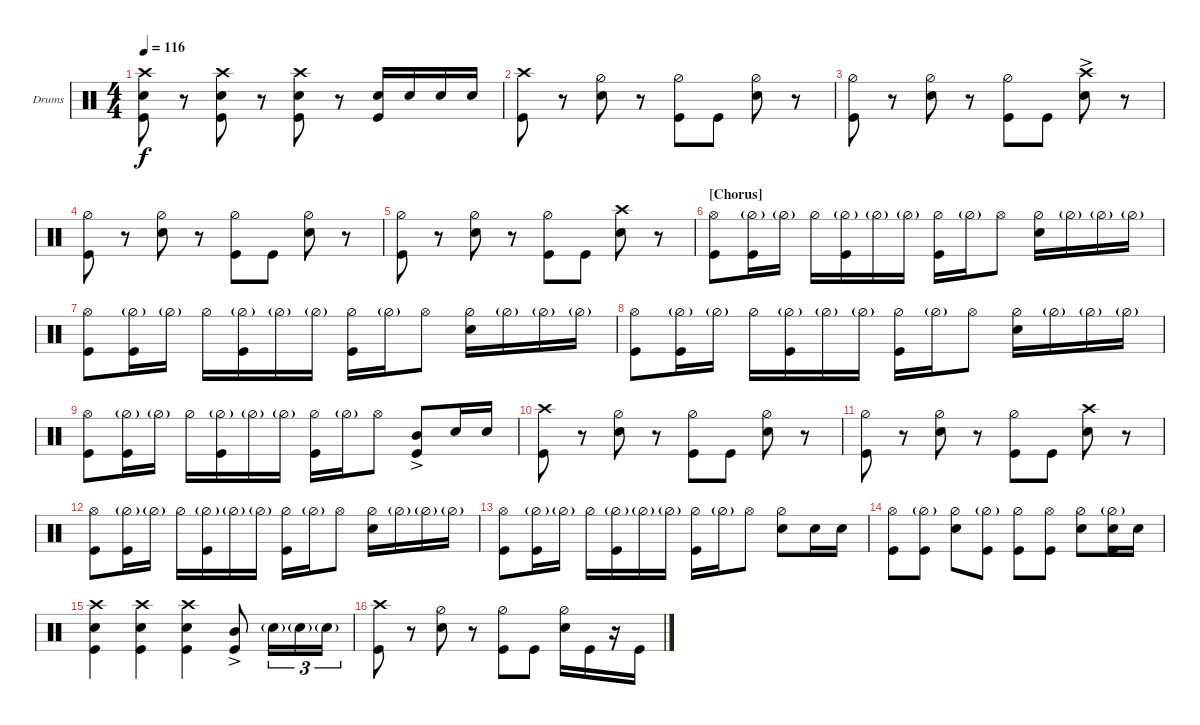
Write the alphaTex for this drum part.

\bracketExtendMode nobrackets
\firstSystemTrackNameOrientation horizontal
\otherSystemsTrackNameOrientation horizontal
\track ("Drumkit" "Drums") {instrument percussion}
\staff {score}
\articulation defaults
\ts (4 4)
\tempo 116
\clef neutral
\ks c
("Snare (hit) 2" "Kick (hit)" "Crash high (hit)").8{dy f} r.8 ("Snare (hit) 2" "Kick (hit)" "Crash high (hit)").8 r.8 ("Snare (hit) 2" "Kick (hit)" "Crash high (hit)").8 r.8 ("Kick (hit)" "Snare (hit) 2").16 "Snare (hit) 2".16 "Snare (hit) 2".16 "Snare (hit) 2".16 |
("Kick (hit)" "Crash high (hit)").8 r.8 ("Snare (hit) 2" "Hi-Hat (half)").8 r.8 ("Hi-Hat (half)" "Kick (hit)").8 "Kick (hit)".8 ("Hi-Hat (half)" "Snare (hit) 2").8 r.8 |
("Hi-Hat (half)" "Kick (hit)").8 r.8 ("Snare (hit) 2" "Hi-Hat (half)").8 r.8 ("Hi-Hat (half)" "Kick (hit)").8 "Kick (hit)".8 ("Snare (hit) 2" "Crash high (hit)"{ac}).8 r.8 |
("Hi-Hat (half)" "Kick (hit)").8 r.8 ("Snare (hit) 2" "Hi-Hat (half)").8 r.8 ("Hi-Hat (half)" "Kick (hit)").8 "Kick (hit)".8 ("Hi-Hat (half)" "Snare (hit) 2").8 r.8 |
("Hi-Hat (half)" "Kick (hit)").8 r.8 ("Snare (hit) 2" "Hi-Hat (half)").8 r.8 ("Hi-Hat (half)" "Kick (hit)").8 "Kick (hit)".8 ("Snare (hit) 2" "Crash high (hit)").8 r.8 |
\section ("" "[Chorus]")
("Hi-Hat (open)" "Kick (hit)").8 ("Hi-Hat (half)"{g} "Kick (hit)").16 "Hi-Hat (half)"{g}.16 "Hi-Hat (half)".16 ("Kick (hit)" "Hi-Hat (half)"{g}).16 "Hi-Hat (half)"{g}.16 "Hi-Hat (half)"{g}.16 ("Hi-Hat (half)" "Kick (hit)").16 "Hi-Hat (half)"{g}.16 "Hi-Hat (open)".8 ("Hi-Hat (half)" "Snare (hit) 2").16 "Hi-Hat (half)"{g}.16 "Hi-Hat (half)"{g}.16 "Hi-Hat (half)"{g}.16 |
("Hi-Hat (open)" "Kick (hit)").8 ("Hi-Hat (half)"{g} "Kick (hit)").16 "Hi-Hat (half)"{g}.16 "Hi-Hat (half)".16 ("Kick (hit)" "Hi-Hat (half)"{g}).16 "Hi-Hat (half)"{g}.16 "Hi-Hat (half)"{g}.16 ("Hi-Hat (half)" "Kick (hit)").16 "Hi-Hat (half)"{g}.16 "Hi-Hat (open)".8 ("Hi-Hat (half)" "Snare (hit) 2").16 "Hi-Hat (half)"{g}.16 "Hi-Hat (half)"{g}.16 "Hi-Hat (half)"{g}.16 |
("Hi-Hat (open)" "Kick (hit)").8 ("Hi-Hat (half)"{g} "Kick (hit)").16 "Hi-Hat (half)"{g}.16 "Hi-Hat (half)".16 ("Kick (hit)" "Hi-Hat (half)"{g}).16 "Hi-Hat (half)"{g}.16 "Hi-Hat (half)"{g}.16 ("Hi-Hat (half)" "Kick (hit)").16 "Hi-Hat (half)"{g}.16 "Hi-Hat (open)".8 ("Hi-Hat (half)" "Snare (hit) 2").16 "Hi-Hat (half)"{g}.16 "Hi-Hat (half)"{g}.16 "Hi-Hat (half)"{g}.16 |
("Hi-Hat (open)" "Kick (hit)").8 ("Hi-Hat (half)"{g} "Kick (hit)").16 "Hi-Hat (half)"{g}.16 "Hi-Hat (half)".16 ("Kick (hit)" "Hi-Hat (half)"{g}).16 "Hi-Hat (half)"{g}.16 "Hi-Hat (half)"{g}.16 ("Hi-Hat (half)" "Kick (hit)").16 "Hi-Hat (half)"{g}.16 "Hi-Hat (open)".8 ("Kick (hit)" "Mid Tom (hit)"{ac}).8 "Snare (hit) 2".16 "Snare (hit) 2".16 |
("Kick (hit)" "Crash high (hit)").8 r.8 ("Snare (hit) 2" "Hi-Hat (half)").8 r.8 ("Hi-Hat (half)" "Kick (hit)").8 "Kick (hit)".8 ("Hi-Hat (half)" "Snare (hit) 2").8 r.8 |
("Hi-Hat (half)" "Kick (hit)").8 r.8 ("Snare (hit) 2" "Hi-Hat (half)").8 r.8 ("Hi-Hat (half)" "Kick (hit)").8 "Kick (hit)".8 ("Snare (hit) 2" "Crash high (hit)").8 r.8 |
("Hi-Hat (open)" "Kick (hit)").8 ("Hi-Hat (half)"{g} "Kick (hit)").16 "Hi-Hat (half)"{g}.16 "Hi-Hat (half)".16 ("Kick (hit)" "Hi-Hat (half)"{g}).16 "Hi-Hat (half)"{g}.16 "Hi-Hat (half)"{g}.16 ("Hi-Hat (half)" "Kick (hit)").16 "Hi-Hat (half)"{g}.16 "Hi-Hat (open)".8 ("Hi-Hat (half)" "Snare (hit) 2").16 "Hi-Hat (half)"{g}.16 "Hi-Hat (half)"{g}.16 "Hi-Hat (half)"{g}.16 |
("Hi-Hat (open)" "Kick (hit)").8 ("Hi-Hat (half)"{g} "Kick (hit)").16 "Hi-Hat (half)"{g}.16 "Hi-Hat (half)".16 ("Kick (hit)" "Hi-Hat (half)"{g}).16 "Hi-Hat (half)"{g}.16 "Hi-Hat (half)"{g}.16 ("Hi-Hat (half)" "Kick (hit)").16 "Hi-Hat (half)"{g}.16 "Hi-Hat (open)".8 ("Hi-Hat (half)" "Snare (hit) 2").8 "Snare (hit) 2".16 "Snare (hit) 2".16 |
("Hi-Hat (open)" "Kick (hit)").8 ("Hi-Hat (half)"{g} "Kick (hit)").8 ("Hi-Hat (half)" "Snare (hit) 2").8 ("Hi-Hat (half)"{g} "Kick (hit)").8 ("Hi-Hat (half)" "Kick (hit)").8 ("Hi-Hat (open)" "Kick (hit)").8 ("Hi-Hat (half)" "Snare (hit) 2").8 ("Hi-Hat (half)"{g} "Kick (hit)" "Snare (hit) 2").16 "Snare (hit) 2".16 |
("Snare (hit) 2" "Kick (hit)" "Crash high (hit)").4 ("Snare (hit) 2" "Kick (hit)" "Crash high (hit)").4 ("Snare (hit) 2" "Kick (hit)" "Crash high (hit)").4 ("Kick (hit)" "Mid Tom (hit)"{ac}).8 "Snare (hit) 2"{g}.16{tu (3 2)} "Snare (hit) 2"{g}.16{tu (3 2)} "Snare (hit) 2"{g}.16{tu (3 2)} |
("Kick (hit)" "Crash high (hit)").8 r.8 ("Snare (hit) 2" "Hi-Hat (half)").8 r.8 ("Hi-Hat (half)" "Kick (hit)").8 "Kick (hit)".8 ("Hi-Hat (half)" "Snare (hit) 2").16 "Kick (hit)".16 r.16 "Kick (hit)".16
